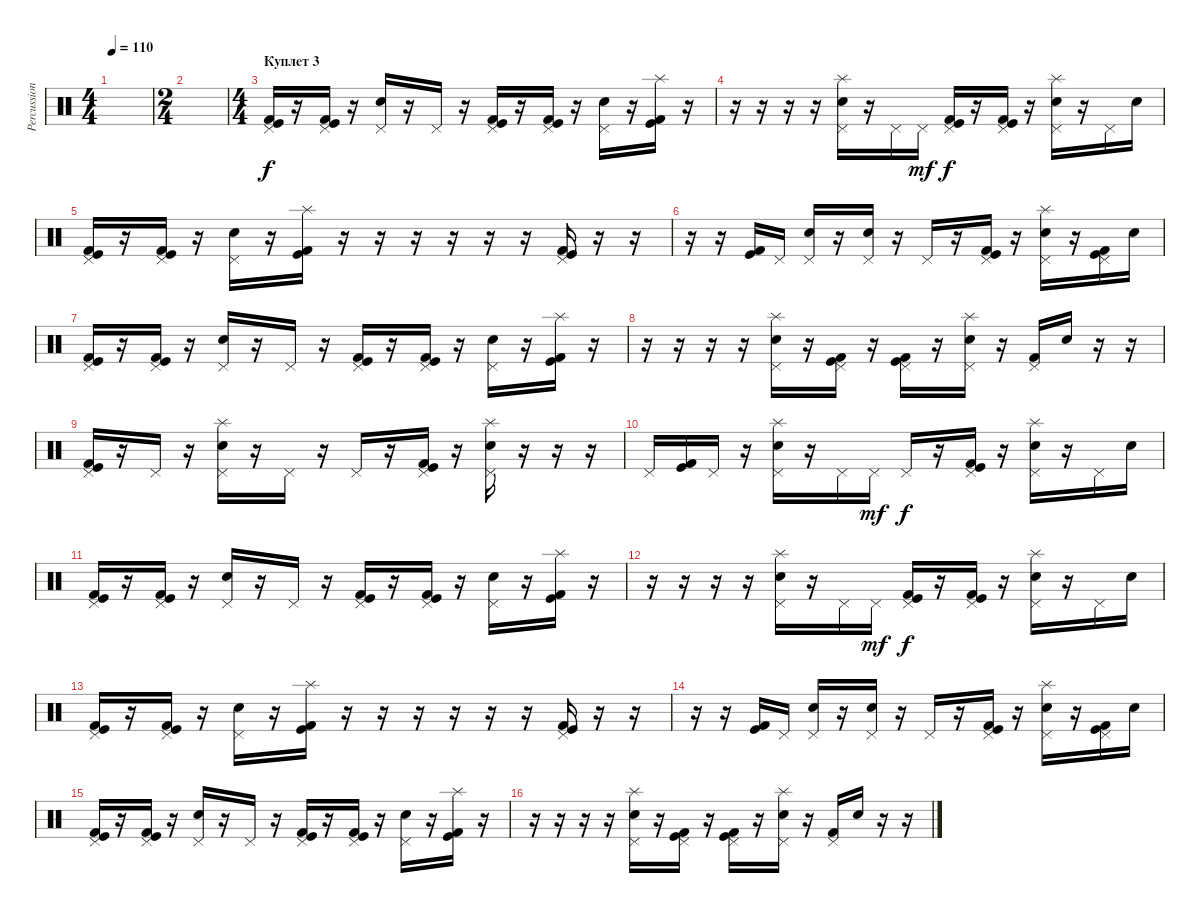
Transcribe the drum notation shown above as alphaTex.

\track ("Percussion" "Percussion") {instrument percussion}
\staff {score}
\articulation defaults
\ts (4 4)
\tempo 110
\clef neutral
\ks c
|
\ts (2 4)
|
\ts (4 4)
\section ("" "Куплет 3")
("Pedal Hi-Hat (hit)" "Kick (hit) 2" "Kick (hit)").16 r.16 ("Pedal Hi-Hat (hit)" "Kick (hit)" "Kick (hit) 2").16 r.16 ("Pedal Hi-Hat (hit)" "Snare (hit) 2").16 r.16 "Pedal Hi-Hat (hit)".16 r.16 ("Pedal Hi-Hat (hit)" "Kick (hit)" "Kick (hit) 2").16 r.16 ("Pedal Hi-Hat (hit)" "Kick (hit) 2" "Kick (hit)").16 r.16 ("Pedal Hi-Hat (hit)" "Snare (hit) 2").16 r.16 ("Splash (hit)" "Kick (hit) 2" "Kick (hit)").16 r.16 |
r.16 r.16 r.16 r.16 ("Pedal Hi-Hat (hit)" "Splash (hit)" "Snare (hit) 2").16 r.16 "Pedal Hi-Hat (hit)".16 "Pedal Hi-Hat (hit)".16{dy mf} ("Pedal Hi-Hat (hit)" "Kick (hit) 2" "Kick (hit)").16{dy f} r.16 ("Pedal Hi-Hat (hit)" "Kick (hit)" "Kick (hit) 2").16 r.16 ("Pedal Hi-Hat (hit)" "Splash (hit)" "Snare (hit) 2").16 r.16 "Pedal Hi-Hat (hit)".16 "Snare (hit) 2".16 |
("Pedal Hi-Hat (hit)" "Kick (hit) 2" "Kick (hit)").16 r.16 ("Pedal Hi-Hat (hit)" "Kick (hit)" "Kick (hit) 2").16 r.16 ("Pedal Hi-Hat (hit)" "Snare (hit) 2").16 r.16 ("Splash (hit)" "Kick (hit)" "Kick (hit) 2").16 r.16 r.16 r.16 r.16 r.16 r.16 ("Pedal Hi-Hat (hit)" "Kick (hit)" "Kick (hit) 2").16 r.16 r.16 |
r.16 r.16 ("Kick (hit) 2" "Kick (hit)").16 "Pedal Hi-Hat (hit)".16 ("Pedal Hi-Hat (hit)" "Snare (hit) 2").16 r.16 ("Pedal Hi-Hat (hit)" "Snare (hit) 2").16 r.16 "Pedal Hi-Hat (hit)".16 r.16 ("Pedal Hi-Hat (hit)" "Kick (hit)" "Kick (hit) 2").16 r.16 ("Pedal Hi-Hat (hit)" "Splash (hit)" "Snare (hit) 2").16 r.16 ("Pedal Hi-Hat (hit)" "Kick (hit) 2" "Kick (hit)").16 "Snare (hit) 2".16 |
("Pedal Hi-Hat (hit)" "Kick (hit) 2" "Kick (hit)").16 r.16 ("Pedal Hi-Hat (hit)" "Kick (hit)" "Kick (hit) 2").16 r.16 ("Pedal Hi-Hat (hit)" "Snare (hit) 2").16 r.16 "Pedal Hi-Hat (hit)".16 r.16 ("Pedal Hi-Hat (hit)" "Kick (hit)" "Kick (hit) 2").16 r.16 ("Pedal Hi-Hat (hit)" "Kick (hit) 2" "Kick (hit)").16 r.16 ("Pedal Hi-Hat (hit)" "Snare (hit) 2").16 r.16 ("Splash (hit)" "Kick (hit) 2" "Kick (hit)").16 r.16 |
r.16 r.16 r.16 r.16 ("Pedal Hi-Hat (hit)" "Splash (hit)" "Snare (hit) 2").16 r.16 ("Pedal Hi-Hat (hit)" "Kick (hit) 2" "Kick (hit)").16 r.16 ("Pedal Hi-Hat (hit)" "Kick (hit)" "Kick (hit) 2").16 r.16 ("Pedal Hi-Hat (hit)" "Splash (hit)" "Snare (hit) 2").16 r.16 ("Pedal Hi-Hat (hit)" "Kick (hit) 2").16 "Snare (hit) 2".16 r.16 r.16 |
("Pedal Hi-Hat (hit)" "Kick (hit) 2" "Kick (hit)").16 r.16 "Pedal Hi-Hat (hit)".16 r.16 ("Pedal Hi-Hat (hit)" "Splash (hit)" "Snare (hit) 2").16 r.16 "Pedal Hi-Hat (hit)".16 r.16 "Pedal Hi-Hat (hit)".16 r.16 ("Pedal Hi-Hat (hit)" "Kick (hit) 2" "Kick (hit)").16 r.16 ("Pedal Hi-Hat (hit)" "Splash (hit)" "Snare (hit) 2").16 r.16 r.16 r.16 |
"Pedal Hi-Hat (hit)".16 ("Kick (hit)" "Kick (hit) 2").16 "Pedal Hi-Hat (hit)".16 r.16 ("Pedal Hi-Hat (hit)" "Splash (hit)" "Snare (hit) 2").16 r.16 "Pedal Hi-Hat (hit)".16 "Pedal Hi-Hat (hit)".16{dy mf} "Pedal Hi-Hat (hit)".16{dy f} r.16 ("Pedal Hi-Hat (hit)" "Kick (hit)" "Kick (hit) 2").16 r.16 ("Pedal Hi-Hat (hit)" "Splash (hit)" "Snare (hit) 2").16 r.16 "Pedal Hi-Hat (hit)".16 "Snare (hit) 2".16 |
("Pedal Hi-Hat (hit)" "Kick (hit) 2" "Kick (hit)").16 r.16 ("Pedal Hi-Hat (hit)" "Kick (hit)" "Kick (hit) 2").16 r.16 ("Pedal Hi-Hat (hit)" "Snare (hit) 2").16 r.16 "Pedal Hi-Hat (hit)".16 r.16 ("Pedal Hi-Hat (hit)" "Kick (hit)" "Kick (hit) 2").16 r.16 ("Pedal Hi-Hat (hit)" "Kick (hit) 2" "Kick (hit)").16 r.16 ("Pedal Hi-Hat (hit)" "Snare (hit) 2").16 r.16 ("Splash (hit)" "Kick (hit) 2" "Kick (hit)").16 r.16 |
r.16 r.16 r.16 r.16 ("Pedal Hi-Hat (hit)" "Splash (hit)" "Snare (hit) 2").16 r.16 "Pedal Hi-Hat (hit)".16 "Pedal Hi-Hat (hit)".16{dy mf} ("Pedal Hi-Hat (hit)" "Kick (hit) 2" "Kick (hit)").16{dy f} r.16 ("Pedal Hi-Hat (hit)" "Kick (hit)" "Kick (hit) 2").16 r.16 ("Pedal Hi-Hat (hit)" "Splash (hit)" "Snare (hit) 2").16 r.16 "Pedal Hi-Hat (hit)".16 "Snare (hit) 2".16 |
("Pedal Hi-Hat (hit)" "Kick (hit) 2" "Kick (hit)").16 r.16 ("Pedal Hi-Hat (hit)" "Kick (hit)" "Kick (hit) 2").16 r.16 ("Pedal Hi-Hat (hit)" "Snare (hit) 2").16 r.16 ("Splash (hit)" "Kick (hit)" "Kick (hit) 2").16 r.16 r.16 r.16 r.16 r.16 r.16 ("Pedal Hi-Hat (hit)" "Kick (hit)" "Kick (hit) 2").16 r.16 r.16 |
r.16 r.16 ("Kick (hit) 2" "Kick (hit)").16 "Pedal Hi-Hat (hit)".16 ("Pedal Hi-Hat (hit)" "Snare (hit) 2").16 r.16 ("Pedal Hi-Hat (hit)" "Snare (hit) 2").16 r.16 "Pedal Hi-Hat (hit)".16 r.16 ("Pedal Hi-Hat (hit)" "Kick (hit)" "Kick (hit) 2").16 r.16 ("Pedal Hi-Hat (hit)" "Splash (hit)" "Snare (hit) 2").16 r.16 ("Pedal Hi-Hat (hit)" "Kick (hit) 2" "Kick (hit)").16 "Snare (hit) 2".16 |
("Pedal Hi-Hat (hit)" "Kick (hit) 2" "Kick (hit)").16 r.16 ("Pedal Hi-Hat (hit)" "Kick (hit)" "Kick (hit) 2").16 r.16 ("Pedal Hi-Hat (hit)" "Snare (hit) 2").16 r.16 "Pedal Hi-Hat (hit)".16 r.16 ("Pedal Hi-Hat (hit)" "Kick (hit)" "Kick (hit) 2").16 r.16 ("Pedal Hi-Hat (hit)" "Kick (hit) 2" "Kick (hit)").16 r.16 ("Pedal Hi-Hat (hit)" "Snare (hit) 2").16 r.16 ("Splash (hit)" "Kick (hit) 2" "Kick (hit)").16 r.16 |
r.16 r.16 r.16 r.16 ("Pedal Hi-Hat (hit)" "Splash (hit)" "Snare (hit) 2").16 r.16 ("Pedal Hi-Hat (hit)" "Kick (hit) 2" "Kick (hit)").16 r.16 ("Pedal Hi-Hat (hit)" "Kick (hit)" "Kick (hit) 2").16 r.16 ("Pedal Hi-Hat (hit)" "Splash (hit)" "Snare (hit) 2").16 r.16 ("Pedal Hi-Hat (hit)" "Kick (hit) 2").16 "Snare (hit) 2".16 r.16 r.16
